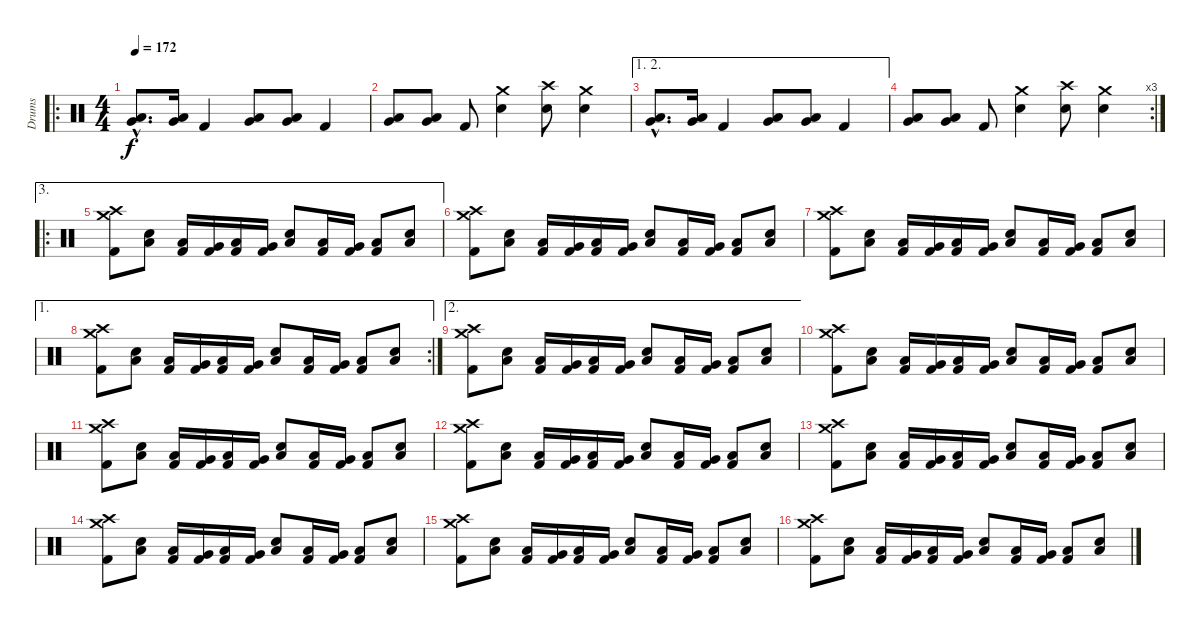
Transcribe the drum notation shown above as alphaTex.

\track ("Drums" "Drums") {instrument percussion}
\staff {score}
\articulation defaults
\ro
\ts (4 4)
\tempo 172
\clef neutral
\ks c
("Very Low Tom (hit)"{hac} "Low Tom (hit)"{hac}).8{d dy f} ("Very Low Tom (hit)" "Low Tom (hit)").16 "Kick (hit) 2".4 ("Low Floor Tom (hit)" "Very Low Tom (hit)").8 ("Low Floor Tom (hit)" "Very Low Tom (hit)").8 "Kick (hit) 2".4 |
("Very Low Tom (hit)" "Low Tom (hit)").8 ("Very Low Tom (hit)" "Low Tom (hit)").8 "Kick (hit) 2".8 ("Crash medium (hit)" "Electric Snare (hit)").4 ("Crash high (hit)" "Electric Snare (hit)").8 ("Crash medium (hit)" "Electric Snare (hit)").4 |
\ae (1 2)
("Very Low Tom (hit)"{hac} "Low Tom (hit)"{hac}).8{d} ("Very Low Tom (hit)" "Low Tom (hit)").16 "Kick (hit) 2".4 ("Low Floor Tom (hit)" "Very Low Tom (hit)").8 ("Low Floor Tom (hit)" "Very Low Tom (hit)").8 "Kick (hit) 2".4 |
\rc 3
("Very Low Tom (hit)" "Low Tom (hit)").8 ("Very Low Tom (hit)" "Low Tom (hit)").8 "Kick (hit) 2".8 ("Crash medium (hit)" "Electric Snare (hit)").4 ("Crash high (hit)" "Electric Snare (hit)").8 ("Crash medium (hit)" "Electric Snare (hit)").4 |
\ae 3
\ro
("Crash medium (hit)" "Crash high (hit)" "Kick (hit) 2").8 ("Low Floor Tom (hit)" "Electric Snare (hit)").8 ("Low Floor Tom (hit)" "Kick (hit) 2").16 ("Very Low Tom (hit)" "Kick (hit) 2").16 ("Low Floor Tom (hit)" "Kick (hit) 2").16 ("Very Low Tom (hit)" "Kick (hit) 2").16 ("Low Floor Tom (hit)" "Electric Snare (hit)").8 ("Low Floor Tom (hit)" "Kick (hit) 2").16 ("Very Low Tom (hit)" "Kick (hit) 2").16 ("Low Floor Tom (hit)" "Kick (hit) 2").8 ("Low Floor Tom (hit)" "Electric Snare (hit)").8 |
("Crash medium (hit)" "Crash high (hit)" "Kick (hit) 2").8 ("Low Floor Tom (hit)" "Electric Snare (hit)").8 ("Low Floor Tom (hit)" "Kick (hit) 2").16 ("Very Low Tom (hit)" "Kick (hit) 2").16 ("Low Floor Tom (hit)" "Kick (hit) 2").16 ("Very Low Tom (hit)" "Kick (hit) 2").16 ("Low Floor Tom (hit)" "Electric Snare (hit)").8 ("Low Floor Tom (hit)" "Kick (hit) 2").16 ("Very Low Tom (hit)" "Kick (hit) 2").16 ("Low Floor Tom (hit)" "Kick (hit) 2").8 ("Low Floor Tom (hit)" "Electric Snare (hit)").8 |
("Crash medium (hit)" "Crash high (hit)" "Kick (hit) 2").8 ("Low Floor Tom (hit)" "Electric Snare (hit)").8 ("Low Floor Tom (hit)" "Kick (hit) 2").16 ("Very Low Tom (hit)" "Kick (hit) 2").16 ("Low Floor Tom (hit)" "Kick (hit) 2").16 ("Very Low Tom (hit)" "Kick (hit) 2").16 ("Low Floor Tom (hit)" "Electric Snare (hit)").8 ("Low Floor Tom (hit)" "Kick (hit) 2").16 ("Very Low Tom (hit)" "Kick (hit) 2").16 ("Low Floor Tom (hit)" "Kick (hit) 2").8 ("Low Floor Tom (hit)" "Electric Snare (hit)").8 |
\ae 1
\rc 2
("Crash medium (hit)" "Crash high (hit)" "Kick (hit) 2").8 ("Low Floor Tom (hit)" "Electric Snare (hit)").8 ("Low Floor Tom (hit)" "Kick (hit) 2").16 ("Very Low Tom (hit)" "Kick (hit) 2").16 ("Low Floor Tom (hit)" "Kick (hit) 2").16 ("Very Low Tom (hit)" "Kick (hit) 2").16 ("Low Floor Tom (hit)" "Electric Snare (hit)").8 ("Low Floor Tom (hit)" "Kick (hit) 2").16 ("Very Low Tom (hit)" "Kick (hit) 2").16 ("Low Floor Tom (hit)" "Kick (hit) 2").8 ("Low Floor Tom (hit)" "Electric Snare (hit)").8 |
\ae 2
("Crash medium (hit)" "Crash high (hit)" "Kick (hit) 2").8 ("Low Floor Tom (hit)" "Electric Snare (hit)").8 ("Low Floor Tom (hit)" "Kick (hit) 2").16 ("Very Low Tom (hit)" "Kick (hit) 2").16 ("Low Floor Tom (hit)" "Kick (hit) 2").16 ("Very Low Tom (hit)" "Kick (hit) 2").16 ("Low Floor Tom (hit)" "Electric Snare (hit)").8 ("Low Floor Tom (hit)" "Kick (hit) 2").16 ("Very Low Tom (hit)" "Kick (hit) 2").16 ("Low Floor Tom (hit)" "Kick (hit) 2").8 ("Low Floor Tom (hit)" "Electric Snare (hit)").8 |
("Crash medium (hit)" "Crash high (hit)" "Kick (hit) 2").8 ("Low Floor Tom (hit)" "Electric Snare (hit)").8 ("Low Floor Tom (hit)" "Kick (hit) 2").16 ("Very Low Tom (hit)" "Kick (hit) 2").16 ("Low Floor Tom (hit)" "Kick (hit) 2").16 ("Very Low Tom (hit)" "Kick (hit) 2").16 ("Low Floor Tom (hit)" "Electric Snare (hit)").8 ("Low Floor Tom (hit)" "Kick (hit) 2").16 ("Very Low Tom (hit)" "Kick (hit) 2").16 ("Low Floor Tom (hit)" "Kick (hit) 2").8 ("Low Floor Tom (hit)" "Electric Snare (hit)").8 |
("Crash medium (hit)" "Crash high (hit)" "Kick (hit) 2").8 ("Low Floor Tom (hit)" "Electric Snare (hit)").8 ("Low Floor Tom (hit)" "Kick (hit) 2").16 ("Very Low Tom (hit)" "Kick (hit) 2").16 ("Low Floor Tom (hit)" "Kick (hit) 2").16 ("Very Low Tom (hit)" "Kick (hit) 2").16 ("Low Floor Tom (hit)" "Electric Snare (hit)").8 ("Low Floor Tom (hit)" "Kick (hit) 2").16 ("Very Low Tom (hit)" "Kick (hit) 2").16 ("Low Floor Tom (hit)" "Kick (hit) 2").8 ("Low Floor Tom (hit)" "Electric Snare (hit)").8 |
("Crash medium (hit)" "Crash high (hit)" "Kick (hit) 2").8 ("Low Floor Tom (hit)" "Electric Snare (hit)").8 ("Low Floor Tom (hit)" "Kick (hit) 2").16 ("Very Low Tom (hit)" "Kick (hit) 2").16 ("Low Floor Tom (hit)" "Kick (hit) 2").16 ("Very Low Tom (hit)" "Kick (hit) 2").16 ("Low Floor Tom (hit)" "Electric Snare (hit)").8 ("Low Floor Tom (hit)" "Kick (hit) 2").16 ("Very Low Tom (hit)" "Kick (hit) 2").16 ("Low Floor Tom (hit)" "Kick (hit) 2").8 ("Low Floor Tom (hit)" "Electric Snare (hit)").8 |
("Crash medium (hit)" "Crash high (hit)" "Kick (hit) 2").8 ("Low Floor Tom (hit)" "Electric Snare (hit)").8 ("Low Floor Tom (hit)" "Kick (hit) 2").16 ("Very Low Tom (hit)" "Kick (hit) 2").16 ("Low Floor Tom (hit)" "Kick (hit) 2").16 ("Very Low Tom (hit)" "Kick (hit) 2").16 ("Low Floor Tom (hit)" "Electric Snare (hit)").8 ("Low Floor Tom (hit)" "Kick (hit) 2").16 ("Very Low Tom (hit)" "Kick (hit) 2").16 ("Low Floor Tom (hit)" "Kick (hit) 2").8 ("Low Floor Tom (hit)" "Electric Snare (hit)").8 |
("Crash medium (hit)" "Crash high (hit)" "Kick (hit) 2").8 ("Low Floor Tom (hit)" "Electric Snare (hit)").8 ("Low Floor Tom (hit)" "Kick (hit) 2").16 ("Very Low Tom (hit)" "Kick (hit) 2").16 ("Low Floor Tom (hit)" "Kick (hit) 2").16 ("Very Low Tom (hit)" "Kick (hit) 2").16 ("Low Floor Tom (hit)" "Electric Snare (hit)").8 ("Low Floor Tom (hit)" "Kick (hit) 2").16 ("Very Low Tom (hit)" "Kick (hit) 2").16 ("Low Floor Tom (hit)" "Kick (hit) 2").8 ("Low Floor Tom (hit)" "Electric Snare (hit)").8 |
("Crash medium (hit)" "Crash high (hit)" "Kick (hit) 2").8 ("Low Floor Tom (hit)" "Electric Snare (hit)").8 ("Low Floor Tom (hit)" "Kick (hit) 2").16 ("Very Low Tom (hit)" "Kick (hit) 2").16 ("Low Floor Tom (hit)" "Kick (hit) 2").16 ("Very Low Tom (hit)" "Kick (hit) 2").16 ("Low Floor Tom (hit)" "Electric Snare (hit)").8 ("Low Floor Tom (hit)" "Kick (hit) 2").16 ("Very Low Tom (hit)" "Kick (hit) 2").16 ("Low Floor Tom (hit)" "Kick (hit) 2").8 ("Low Floor Tom (hit)" "Electric Snare (hit)").8 |
("Crash medium (hit)" "Crash high (hit)" "Kick (hit) 2").8 ("Low Floor Tom (hit)" "Electric Snare (hit)").8 ("Low Floor Tom (hit)" "Kick (hit) 2").16 ("Very Low Tom (hit)" "Kick (hit) 2").16 ("Low Floor Tom (hit)" "Kick (hit) 2").16 ("Very Low Tom (hit)" "Kick (hit) 2").16 ("Low Floor Tom (hit)" "Electric Snare (hit)").8 ("Low Floor Tom (hit)" "Kick (hit) 2").16 ("Very Low Tom (hit)" "Kick (hit) 2").16 ("Low Floor Tom (hit)" "Kick (hit) 2").8 ("Low Floor Tom (hit)" "Electric Snare (hit)").8
